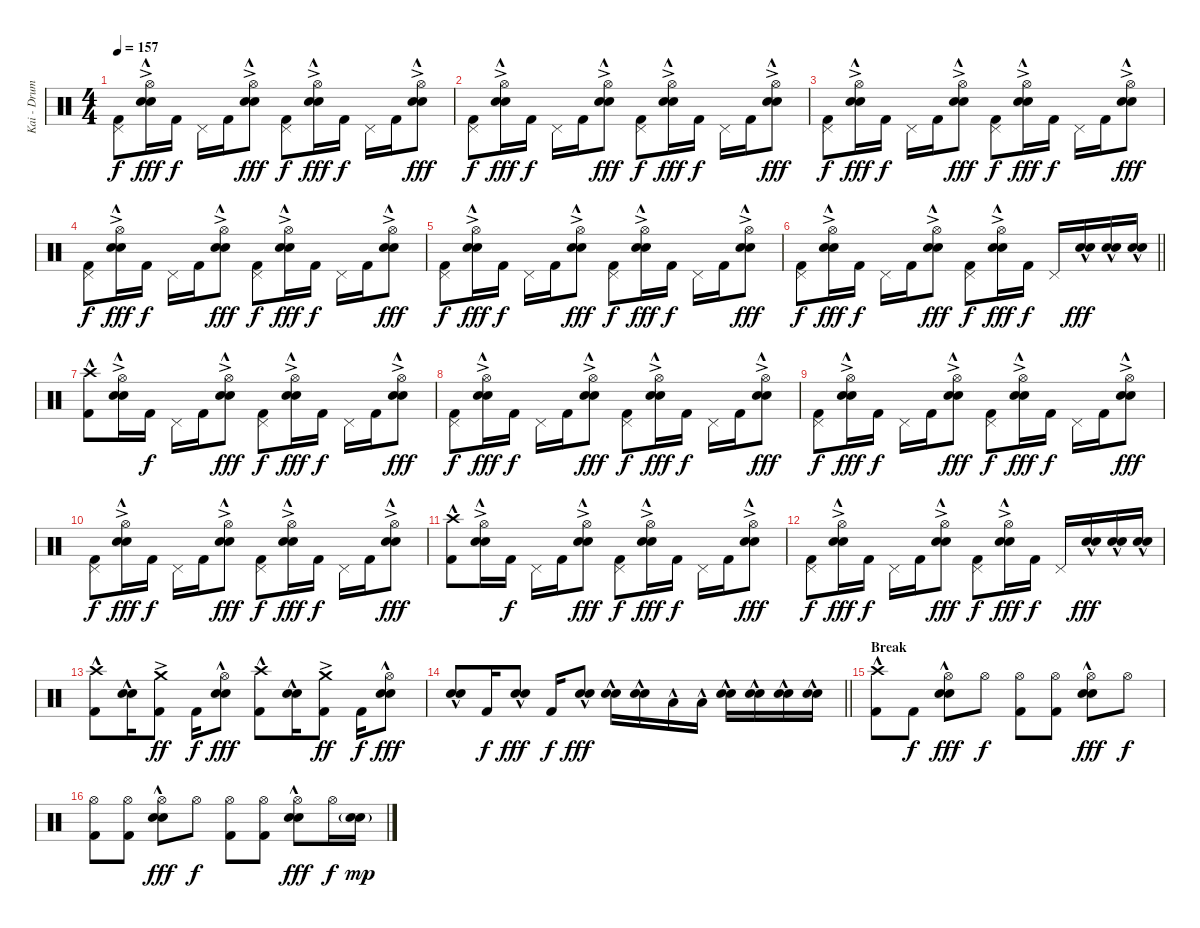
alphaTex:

\track ("Kai - Drums" "Kai - Drum") {instrument percussion}
\staff {score}
\articulation defaults
\ts (4 4)
\tempo 157
\clef neutral
\ks c
("Pedal Hi-Hat (hit)" "Kick (hit) 2").8{dy f} ("Hi-Hat (open)"{ac} "Electric Snare (hit)"{hac} "Snare (hit) 2").16{dy fff} "Kick (hit) 2".16{dy f} "Pedal Hi-Hat (hit)".16 "Kick (hit) 2".16 ("Hi-Hat (open)"{ac} "Electric Snare (hit)"{hac} "Snare (hit) 2").8{dy fff} ("Pedal Hi-Hat (hit)" "Kick (hit) 2").8{dy f} ("Hi-Hat (open)"{ac} "Electric Snare (hit)"{hac} "Snare (hit) 2").16{dy fff} "Kick (hit) 2".16{dy f} "Pedal Hi-Hat (hit)".16 "Kick (hit) 2".16 ("Hi-Hat (open)"{ac} "Electric Snare (hit)"{hac} "Snare (hit) 2").8{dy fff} |
("Pedal Hi-Hat (hit)" "Kick (hit) 2").8{dy f} ("Hi-Hat (open)"{ac} "Electric Snare (hit)"{hac} "Snare (hit) 2").16{dy fff} "Kick (hit) 2".16{dy f} "Pedal Hi-Hat (hit)".16 "Kick (hit) 2".16 ("Hi-Hat (open)"{ac} "Electric Snare (hit)"{hac} "Snare (hit) 2").8{dy fff} ("Pedal Hi-Hat (hit)" "Kick (hit) 2").8{dy f} ("Hi-Hat (open)"{ac} "Electric Snare (hit)"{hac} "Snare (hit) 2").16{dy fff} "Kick (hit) 2".16{dy f} "Pedal Hi-Hat (hit)".16 "Kick (hit) 2".16 ("Hi-Hat (open)"{ac} "Electric Snare (hit)"{hac} "Snare (hit) 2").8{dy fff} |
("Pedal Hi-Hat (hit)" "Kick (hit) 2").8{dy f} ("Hi-Hat (open)"{ac} "Electric Snare (hit)"{hac} "Snare (hit) 2").16{dy fff} "Kick (hit) 2".16{dy f} "Pedal Hi-Hat (hit)".16 "Kick (hit) 2".16 ("Hi-Hat (open)"{ac} "Electric Snare (hit)"{hac} "Snare (hit) 2").8{dy fff} ("Pedal Hi-Hat (hit)" "Kick (hit) 2").8{dy f} ("Hi-Hat (open)"{ac} "Electric Snare (hit)"{hac} "Snare (hit) 2").16{dy fff} "Kick (hit) 2".16{dy f} "Pedal Hi-Hat (hit)".16 "Kick (hit) 2".16 ("Hi-Hat (open)"{ac} "Electric Snare (hit)"{hac} "Snare (hit) 2").8{dy fff} |
("Pedal Hi-Hat (hit)" "Kick (hit) 2").8{dy f} ("Hi-Hat (open)"{ac} "Electric Snare (hit)"{hac} "Snare (hit) 2").16{dy fff} "Kick (hit) 2".16{dy f} "Pedal Hi-Hat (hit)".16 "Kick (hit) 2".16 ("Hi-Hat (open)"{ac} "Electric Snare (hit)"{hac} "Snare (hit) 2").8{dy fff} ("Pedal Hi-Hat (hit)" "Kick (hit) 2").8{dy f} ("Hi-Hat (open)"{ac} "Electric Snare (hit)"{hac} "Snare (hit) 2").16{dy fff} "Kick (hit) 2".16{dy f} "Pedal Hi-Hat (hit)".16 "Kick (hit) 2".16 ("Hi-Hat (open)"{ac} "Electric Snare (hit)"{hac} "Snare (hit) 2").8{dy fff} |
("Pedal Hi-Hat (hit)" "Kick (hit) 2").8{dy f} ("Hi-Hat (open)"{ac} "Electric Snare (hit)"{hac} "Snare (hit) 2").16{dy fff} "Kick (hit) 2".16{dy f} "Pedal Hi-Hat (hit)".16 "Kick (hit) 2".16 ("Hi-Hat (open)"{ac} "Electric Snare (hit)"{hac} "Snare (hit) 2").8{dy fff} ("Pedal Hi-Hat (hit)" "Kick (hit) 2").8{dy f} ("Hi-Hat (open)"{ac} "Electric Snare (hit)"{hac} "Snare (hit) 2").16{dy fff} "Kick (hit) 2".16{dy f} "Pedal Hi-Hat (hit)".16 "Kick (hit) 2".16 ("Hi-Hat (open)"{ac} "Electric Snare (hit)"{hac} "Snare (hit) 2").8{dy fff} |
\barLineRight lightlight
("Pedal Hi-Hat (hit)" "Kick (hit) 2").8{dy f} ("Hi-Hat (open)"{ac} "Electric Snare (hit)"{hac} "Snare (hit) 2").16{dy fff} "Kick (hit) 2".16{dy f} "Pedal Hi-Hat (hit)".16 "Kick (hit) 2".16 ("Hi-Hat (open)"{ac} "Electric Snare (hit)"{hac} "Snare (hit) 2").8{dy fff} ("Pedal Hi-Hat (hit)" "Kick (hit) 2").8{dy f} ("Hi-Hat (open)"{ac} "Electric Snare (hit)"{hac} "Snare (hit) 2").16{dy fff} "Kick (hit) 2".16{dy f} "Pedal Hi-Hat (hit)".16 ("Electric Snare (hit)"{hac} "Snare (hit) 2").16{dy fff} ("Electric Snare (hit)"{hac} "Snare (hit) 2").16 ("Electric Snare (hit)"{hac} "Snare (hit) 2").16 |
\section ("" "")
("Crash high (hit)"{hac} "Kick (hit) 2").8 ("Hi-Hat (open)"{ac} "Electric Snare (hit)"{hac} "Snare (hit) 2").16 "Kick (hit) 2".16{dy f} "Pedal Hi-Hat (hit)".16 "Kick (hit) 2".16 ("Hi-Hat (open)"{ac} "Electric Snare (hit)"{hac} "Snare (hit) 2").8{dy fff} ("Pedal Hi-Hat (hit)" "Kick (hit) 2").8{dy f} ("Hi-Hat (open)"{ac} "Electric Snare (hit)"{hac} "Snare (hit) 2").16{dy fff} "Kick (hit) 2".16{dy f} "Pedal Hi-Hat (hit)".16 "Kick (hit) 2".16 ("Hi-Hat (open)"{ac} "Electric Snare (hit)"{hac} "Snare (hit) 2").8{dy fff} |
("Pedal Hi-Hat (hit)" "Kick (hit) 2").8{dy f} ("Hi-Hat (open)"{ac} "Electric Snare (hit)"{hac} "Snare (hit) 2").16{dy fff} "Kick (hit) 2".16{dy f} "Pedal Hi-Hat (hit)".16 "Kick (hit) 2".16 ("Hi-Hat (open)"{ac} "Electric Snare (hit)"{hac} "Snare (hit) 2").8{dy fff} ("Pedal Hi-Hat (hit)" "Kick (hit) 2").8{dy f} ("Hi-Hat (open)"{ac} "Electric Snare (hit)"{hac} "Snare (hit) 2").16{dy fff} "Kick (hit) 2".16{dy f} "Pedal Hi-Hat (hit)".16 "Kick (hit) 2".16 ("Hi-Hat (open)"{ac} "Electric Snare (hit)"{hac} "Snare (hit) 2").8{dy fff} |
("Pedal Hi-Hat (hit)" "Kick (hit) 2").8{dy f} ("Hi-Hat (open)"{ac} "Electric Snare (hit)"{hac} "Snare (hit) 2").16{dy fff} "Kick (hit) 2".16{dy f} "Pedal Hi-Hat (hit)".16 "Kick (hit) 2".16 ("Hi-Hat (open)"{ac} "Electric Snare (hit)"{hac} "Snare (hit) 2").8{dy fff} ("Pedal Hi-Hat (hit)" "Kick (hit) 2").8{dy f} ("Hi-Hat (open)"{ac} "Electric Snare (hit)"{hac} "Snare (hit) 2").16{dy fff} "Kick (hit) 2".16{dy f} "Pedal Hi-Hat (hit)".16 "Kick (hit) 2".16 ("Hi-Hat (open)"{ac} "Electric Snare (hit)"{hac} "Snare (hit) 2").8{dy fff} |
("Pedal Hi-Hat (hit)" "Kick (hit) 2").8{dy f} ("Hi-Hat (open)"{ac} "Electric Snare (hit)"{hac} "Snare (hit) 2").16{dy fff} "Kick (hit) 2".16{dy f} "Pedal Hi-Hat (hit)".16 "Kick (hit) 2".16 ("Hi-Hat (open)"{ac} "Electric Snare (hit)"{hac} "Snare (hit) 2").8{dy fff} ("Pedal Hi-Hat (hit)" "Kick (hit) 2").8{dy f} ("Hi-Hat (open)"{ac} "Electric Snare (hit)"{hac} "Snare (hit) 2").16{dy fff} "Kick (hit) 2".16{dy f} "Pedal Hi-Hat (hit)".16 "Kick (hit) 2".16 ("Hi-Hat (open)"{ac} "Electric Snare (hit)"{hac} "Snare (hit) 2").8{dy fff} |
("Crash high (hit)"{hac} "Kick (hit) 2").8 ("Hi-Hat (open)"{ac} "Electric Snare (hit)"{hac} "Snare (hit) 2").16 "Kick (hit) 2".16{dy f} "Pedal Hi-Hat (hit)".16 "Kick (hit) 2".16 ("Hi-Hat (open)"{ac} "Electric Snare (hit)"{hac} "Snare (hit) 2").8{dy fff} ("Pedal Hi-Hat (hit)" "Kick (hit) 2").8{dy f} ("Hi-Hat (open)"{ac} "Electric Snare (hit)"{hac} "Snare (hit) 2").16{dy fff} "Kick (hit) 2".16{dy f} "Pedal Hi-Hat (hit)".16 "Kick (hit) 2".16 ("Hi-Hat (open)"{ac} "Electric Snare (hit)"{hac} "Snare (hit) 2").8{dy fff} |
("Pedal Hi-Hat (hit)" "Kick (hit) 2").8{dy f} ("Hi-Hat (open)"{ac} "Electric Snare (hit)"{hac} "Snare (hit) 2").16{dy fff} "Kick (hit) 2".16{dy f} "Pedal Hi-Hat (hit)".16 "Kick (hit) 2".16 ("Hi-Hat (open)"{ac} "Electric Snare (hit)"{hac} "Snare (hit) 2").8{dy fff} ("Pedal Hi-Hat (hit)" "Kick (hit) 2").8{dy f} ("Hi-Hat (open)"{ac} "Electric Snare (hit)"{hac} "Snare (hit) 2").16{dy fff} "Kick (hit) 2".16{dy f} "Pedal Hi-Hat (hit)".16 ("Electric Snare (hit)"{hac} "Snare (hit) 2").16{dy fff} ("Electric Snare (hit)"{hac} "Snare (hit) 2").16 ("Electric Snare (hit)"{hac} "Snare (hit) 2").16 |
("Crash high (hit)"{hac} "Kick (hit) 2").8 ("Electric Snare (hit)"{hac} "Snare (hit) 2").16 ("Crash medium (hit)"{ac} "Kick (hit) 2").8{dy ff} "Kick (hit) 2".16{dy f} ("Hi-Hat (open)" "Electric Snare (hit)"{hac} "Snare (hit) 2").8{dy fff} ("Crash high (hit)"{hac} "Kick (hit) 2").8 ("Electric Snare (hit)"{hac} "Snare (hit) 2").16 ("Crash medium (hit)"{ac} "Kick (hit) 2").8{dy ff} "Kick (hit) 2".16{dy f} ("Hi-Hat (open)" "Electric Snare (hit)"{hac} "Snare (hit) 2").8{dy fff} |
\barLineRight lightlight
("Electric Snare (hit)"{hac} "Snare (hit) 2").8 "Kick (hit) 2".16{dy f} ("Electric Snare (hit)"{hac} "Snare (hit) 2").8{dy fff} "Kick (hit) 2".16{dy f} ("Electric Snare (hit)"{hac} "Snare (hit) 2").8{dy fff} ("Electric Snare (hit)"{hac} "Snare (hit) 2").16 ("Electric Snare (hit)"{hac} "Snare (hit) 2").16 "Low Tom (hit)"{hac}.16 "Low Tom (hit)"{hac}.16 ("Electric Snare (hit)"{hac} "Snare (hit) 2").16 ("Electric Snare (hit)"{hac} "Snare (hit) 2").16 ("Electric Snare (hit)"{hac} "Snare (hit) 2").16 ("Electric Snare (hit)"{hac} "Snare (hit) 2").16 |
\section ("" "Break")
("Crash high (hit)"{hac} "Kick (hit) 2").8 "Kick (hit) 2".8{dy f} ("Hi-Hat (open)" "Electric Snare (hit)"{hac} "Snare (hit) 2").8{dy fff} "Hi-Hat (open)".8{dy f} ("Hi-Hat (open)" "Kick (hit) 2").8 ("Hi-Hat (open)" "Kick (hit) 2").8 ("Hi-Hat (open)" "Electric Snare (hit)"{hac} "Snare (hit) 2").8{dy fff} "Hi-Hat (open)".8{dy f} |
("Hi-Hat (open)" "Kick (hit) 2").8 ("Hi-Hat (open)" "Kick (hit) 2").8 ("Hi-Hat (open)" "Electric Snare (hit)"{hac} "Snare (hit) 2").8{dy fff} "Hi-Hat (open)".8{dy f} ("Hi-Hat (open)" "Kick (hit) 2").8 ("Hi-Hat (open)" "Kick (hit) 2").8 ("Hi-Hat (open)" "Electric Snare (hit)"{hac} "Snare (hit) 2").8{dy fff} "Hi-Hat (open)".16{dy f} ("Electric Snare (hit)"{g} "Snare (hit) 2"{g}).16{dy mp}
